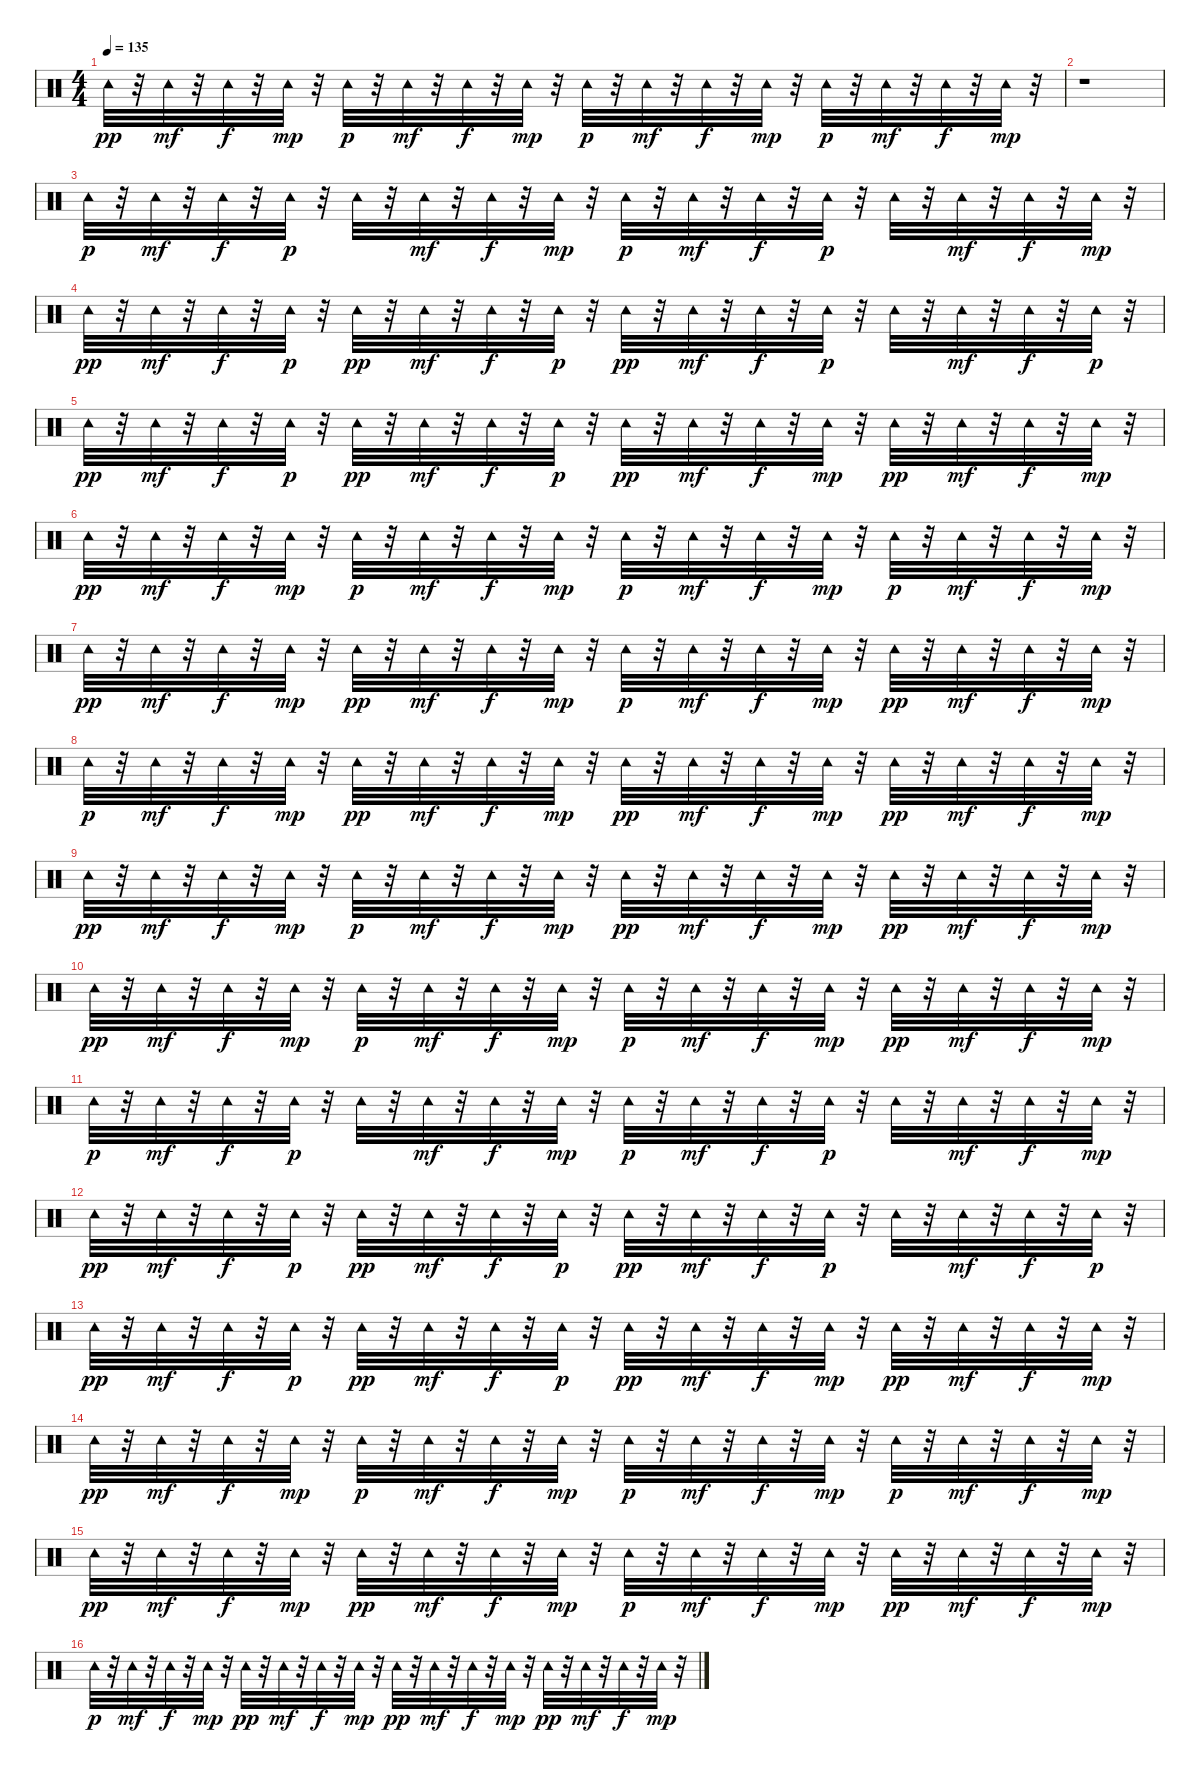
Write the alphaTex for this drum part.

\track "" {instrument percussion}
\staff {score}
\articulation defaults
\ts (4 4)
\tempo 135
\clef neutral
\ks c "Tambourine (hit)".32{dy pp}
r.32 "Tambourine (hit)".32{dy mf} r.32 "Tambourine (hit)".32{dy f} r.32 "Tambourine (hit)".32{dy mp} r.32 "Tambourine (hit)".32{dy p} r.32 "Tambourine (hit)".32{dy mf} r.32 "Tambourine (hit)".32{dy f} r.32 "Tambourine (hit)".32{dy mp} r.32 "Tambourine (hit)".32{dy p} r.32 "Tambourine (hit)".32{dy mf} r.32 "Tambourine (hit)".32{dy f} r.32 "Tambourine (hit)".32{dy mp} r.32 "Tambourine (hit)".32{dy p} r.32 "Tambourine (hit)".32{dy mf} r.32 "Tambourine (hit)".32{dy f} r.32 "Tambourine (hit)".32{dy mp} r.32 |
r.1 |
"Tambourine (hit)".32{dy p} r.32 "Tambourine (hit)".32{dy mf} r.32 "Tambourine (hit)".32{dy f} r.32 "Tambourine (hit)".32{dy p} r.32 "Tambourine (hit)".32 r.32 "Tambourine (hit)".32{dy mf} r.32 "Tambourine (hit)".32{dy f} r.32 "Tambourine (hit)".32{dy mp} r.32 "Tambourine (hit)".32{dy p} r.32 "Tambourine (hit)".32{dy mf} r.32 "Tambourine (hit)".32{dy f} r.32 "Tambourine (hit)".32{dy p} r.32 "Tambourine (hit)".32 r.32 "Tambourine (hit)".32{dy mf} r.32 "Tambourine (hit)".32{dy f} r.32 "Tambourine (hit)".32{dy mp} r.32 |
"Tambourine (hit)".32{dy pp} r.32 "Tambourine (hit)".32{dy mf} r.32 "Tambourine (hit)".32{dy f} r.32 "Tambourine (hit)".32{dy p} r.32 "Tambourine (hit)".32{dy pp} r.32 "Tambourine (hit)".32{dy mf} r.32 "Tambourine (hit)".32{dy f} r.32 "Tambourine (hit)".32{dy p} r.32 "Tambourine (hit)".32{dy pp} r.32 "Tambourine (hit)".32{dy mf} r.32 "Tambourine (hit)".32{dy f} r.32 "Tambourine (hit)".32{dy p} r.32 "Tambourine (hit)".32 r.32 "Tambourine (hit)".32{dy mf} r.32 "Tambourine (hit)".32{dy f} r.32 "Tambourine (hit)".32{dy p} r.32 |
"Tambourine (hit)".32{dy pp} r.32 "Tambourine (hit)".32{dy mf} r.32 "Tambourine (hit)".32{dy f} r.32 "Tambourine (hit)".32{dy p} r.32 "Tambourine (hit)".32{dy pp} r.32 "Tambourine (hit)".32{dy mf} r.32 "Tambourine (hit)".32{dy f} r.32 "Tambourine (hit)".32{dy p} r.32 "Tambourine (hit)".32{dy pp} r.32 "Tambourine (hit)".32{dy mf} r.32 "Tambourine (hit)".32{dy f} r.32 "Tambourine (hit)".32{dy mp} r.32 "Tambourine (hit)".32{dy pp} r.32 "Tambourine (hit)".32{dy mf} r.32 "Tambourine (hit)".32{dy f} r.32 "Tambourine (hit)".32{dy mp} r.32 |
"Tambourine (hit)".32{dy pp} r.32 "Tambourine (hit)".32{dy mf} r.32 "Tambourine (hit)".32{dy f} r.32 "Tambourine (hit)".32{dy mp} r.32 "Tambourine (hit)".32{dy p} r.32 "Tambourine (hit)".32{dy mf} r.32 "Tambourine (hit)".32{dy f} r.32 "Tambourine (hit)".32{dy mp} r.32 "Tambourine (hit)".32{dy p} r.32 "Tambourine (hit)".32{dy mf} r.32 "Tambourine (hit)".32{dy f} r.32 "Tambourine (hit)".32{dy mp} r.32 "Tambourine (hit)".32{dy p} r.32 "Tambourine (hit)".32{dy mf} r.32 "Tambourine (hit)".32{dy f} r.32 "Tambourine (hit)".32{dy mp} r.32 |
"Tambourine (hit)".32{dy pp} r.32 "Tambourine (hit)".32{dy mf} r.32 "Tambourine (hit)".32{dy f} r.32 "Tambourine (hit)".32{dy mp} r.32 "Tambourine (hit)".32{dy pp} r.32 "Tambourine (hit)".32{dy mf} r.32 "Tambourine (hit)".32{dy f} r.32 "Tambourine (hit)".32{dy mp} r.32 "Tambourine (hit)".32{dy p} r.32 "Tambourine (hit)".32{dy mf} r.32 "Tambourine (hit)".32{dy f} r.32 "Tambourine (hit)".32{dy mp} r.32 "Tambourine (hit)".32{dy pp} r.32 "Tambourine (hit)".32{dy mf} r.32 "Tambourine (hit)".32{dy f} r.32 "Tambourine (hit)".32{dy mp} r.32 |
"Tambourine (hit)".32{dy p} r.32 "Tambourine (hit)".32{dy mf} r.32 "Tambourine (hit)".32{dy f} r.32 "Tambourine (hit)".32{dy mp} r.32 "Tambourine (hit)".32{dy pp} r.32 "Tambourine (hit)".32{dy mf} r.32 "Tambourine (hit)".32{dy f} r.32 "Tambourine (hit)".32{dy mp} r.32 "Tambourine (hit)".32{dy pp} r.32 "Tambourine (hit)".32{dy mf} r.32 "Tambourine (hit)".32{dy f} r.32 "Tambourine (hit)".32{dy mp} r.32 "Tambourine (hit)".32{dy pp} r.32 "Tambourine (hit)".32{dy mf} r.32 "Tambourine (hit)".32{dy f} r.32 "Tambourine (hit)".32{dy mp} r.32 |
"Tambourine (hit)".32{dy pp} r.32 "Tambourine (hit)".32{dy mf} r.32 "Tambourine (hit)".32{dy f} r.32 "Tambourine (hit)".32{dy mp} r.32 "Tambourine (hit)".32{dy p} r.32 "Tambourine (hit)".32{dy mf} r.32 "Tambourine (hit)".32{dy f} r.32 "Tambourine (hit)".32{dy mp} r.32 "Tambourine (hit)".32{dy pp} r.32 "Tambourine (hit)".32{dy mf} r.32 "Tambourine (hit)".32{dy f} r.32 "Tambourine (hit)".32{dy mp} r.32 "Tambourine (hit)".32{dy pp} r.32 "Tambourine (hit)".32{dy mf} r.32 "Tambourine (hit)".32{dy f} r.32 "Tambourine (hit)".32{dy mp} r.32 |
"Tambourine (hit)".32{dy pp} r.32 "Tambourine (hit)".32{dy mf} r.32 "Tambourine (hit)".32{dy f} r.32 "Tambourine (hit)".32{dy mp} r.32 "Tambourine (hit)".32{dy p} r.32 "Tambourine (hit)".32{dy mf} r.32 "Tambourine (hit)".32{dy f} r.32 "Tambourine (hit)".32{dy mp} r.32 "Tambourine (hit)".32{dy p} r.32 "Tambourine (hit)".32{dy mf} r.32 "Tambourine (hit)".32{dy f} r.32 "Tambourine (hit)".32{dy mp} r.32 "Tambourine (hit)".32{dy pp} r.32 "Tambourine (hit)".32{dy mf} r.32 "Tambourine (hit)".32{dy f} r.32 "Tambourine (hit)".32{dy mp} r.32 |
"Tambourine (hit)".32{dy p} r.32 "Tambourine (hit)".32{dy mf} r.32 "Tambourine (hit)".32{dy f} r.32 "Tambourine (hit)".32{dy p} r.32 "Tambourine (hit)".32 r.32 "Tambourine (hit)".32{dy mf} r.32 "Tambourine (hit)".32{dy f} r.32 "Tambourine (hit)".32{dy mp} r.32 "Tambourine (hit)".32{dy p} r.32 "Tambourine (hit)".32{dy mf} r.32 "Tambourine (hit)".32{dy f} r.32 "Tambourine (hit)".32{dy p} r.32 "Tambourine (hit)".32 r.32 "Tambourine (hit)".32{dy mf} r.32 "Tambourine (hit)".32{dy f} r.32 "Tambourine (hit)".32{dy mp} r.32 |
"Tambourine (hit)".32{dy pp} r.32 "Tambourine (hit)".32{dy mf} r.32 "Tambourine (hit)".32{dy f} r.32 "Tambourine (hit)".32{dy p} r.32 "Tambourine (hit)".32{dy pp} r.32 "Tambourine (hit)".32{dy mf} r.32 "Tambourine (hit)".32{dy f} r.32 "Tambourine (hit)".32{dy p} r.32 "Tambourine (hit)".32{dy pp} r.32 "Tambourine (hit)".32{dy mf} r.32 "Tambourine (hit)".32{dy f} r.32 "Tambourine (hit)".32{dy p} r.32 "Tambourine (hit)".32 r.32 "Tambourine (hit)".32{dy mf} r.32 "Tambourine (hit)".32{dy f} r.32 "Tambourine (hit)".32{dy p} r.32 |
"Tambourine (hit)".32{dy pp} r.32 "Tambourine (hit)".32{dy mf} r.32 "Tambourine (hit)".32{dy f} r.32 "Tambourine (hit)".32{dy p} r.32 "Tambourine (hit)".32{dy pp} r.32 "Tambourine (hit)".32{dy mf} r.32 "Tambourine (hit)".32{dy f} r.32 "Tambourine (hit)".32{dy p} r.32 "Tambourine (hit)".32{dy pp} r.32 "Tambourine (hit)".32{dy mf} r.32 "Tambourine (hit)".32{dy f} r.32 "Tambourine (hit)".32{dy mp} r.32 "Tambourine (hit)".32{dy pp} r.32 "Tambourine (hit)".32{dy mf} r.32 "Tambourine (hit)".32{dy f} r.32 "Tambourine (hit)".32{dy mp} r.32 |
"Tambourine (hit)".32{dy pp} r.32 "Tambourine (hit)".32{dy mf} r.32 "Tambourine (hit)".32{dy f} r.32 "Tambourine (hit)".32{dy mp} r.32 "Tambourine (hit)".32{dy p} r.32 "Tambourine (hit)".32{dy mf} r.32 "Tambourine (hit)".32{dy f} r.32 "Tambourine (hit)".32{dy mp} r.32 "Tambourine (hit)".32{dy p} r.32 "Tambourine (hit)".32{dy mf} r.32 "Tambourine (hit)".32{dy f} r.32 "Tambourine (hit)".32{dy mp} r.32 "Tambourine (hit)".32{dy p} r.32 "Tambourine (hit)".32{dy mf} r.32 "Tambourine (hit)".32{dy f} r.32 "Tambourine (hit)".32{dy mp} r.32 |
"Tambourine (hit)".32{dy pp} r.32 "Tambourine (hit)".32{dy mf} r.32 "Tambourine (hit)".32{dy f} r.32 "Tambourine (hit)".32{dy mp} r.32 "Tambourine (hit)".32{dy pp} r.32 "Tambourine (hit)".32{dy mf} r.32 "Tambourine (hit)".32{dy f} r.32 "Tambourine (hit)".32{dy mp} r.32 "Tambourine (hit)".32{dy p} r.32 "Tambourine (hit)".32{dy mf} r.32 "Tambourine (hit)".32{dy f} r.32 "Tambourine (hit)".32{dy mp} r.32 "Tambourine (hit)".32{dy pp} r.32 "Tambourine (hit)".32{dy mf} r.32 "Tambourine (hit)".32{dy f} r.32 "Tambourine (hit)".32{dy mp} r.32 |
"Tambourine (hit)".32{dy p} r.32 "Tambourine (hit)".32{dy mf} r.32 "Tambourine (hit)".32{dy f} r.32 "Tambourine (hit)".32{dy mp} r.32 "Tambourine (hit)".32{dy pp} r.32 "Tambourine (hit)".32{dy mf} r.32 "Tambourine (hit)".32{dy f} r.32 "Tambourine (hit)".32{dy mp} r.32 "Tambourine (hit)".32{dy pp} r.32 "Tambourine (hit)".32{dy mf} r.32 "Tambourine (hit)".32{dy f} r.32 "Tambourine (hit)".32{dy mp} r.32 "Tambourine (hit)".32{dy pp} r.32 "Tambourine (hit)".32{dy mf} r.32 "Tambourine (hit)".32{dy f} r.32 "Tambourine (hit)".32{dy mp} r.32
